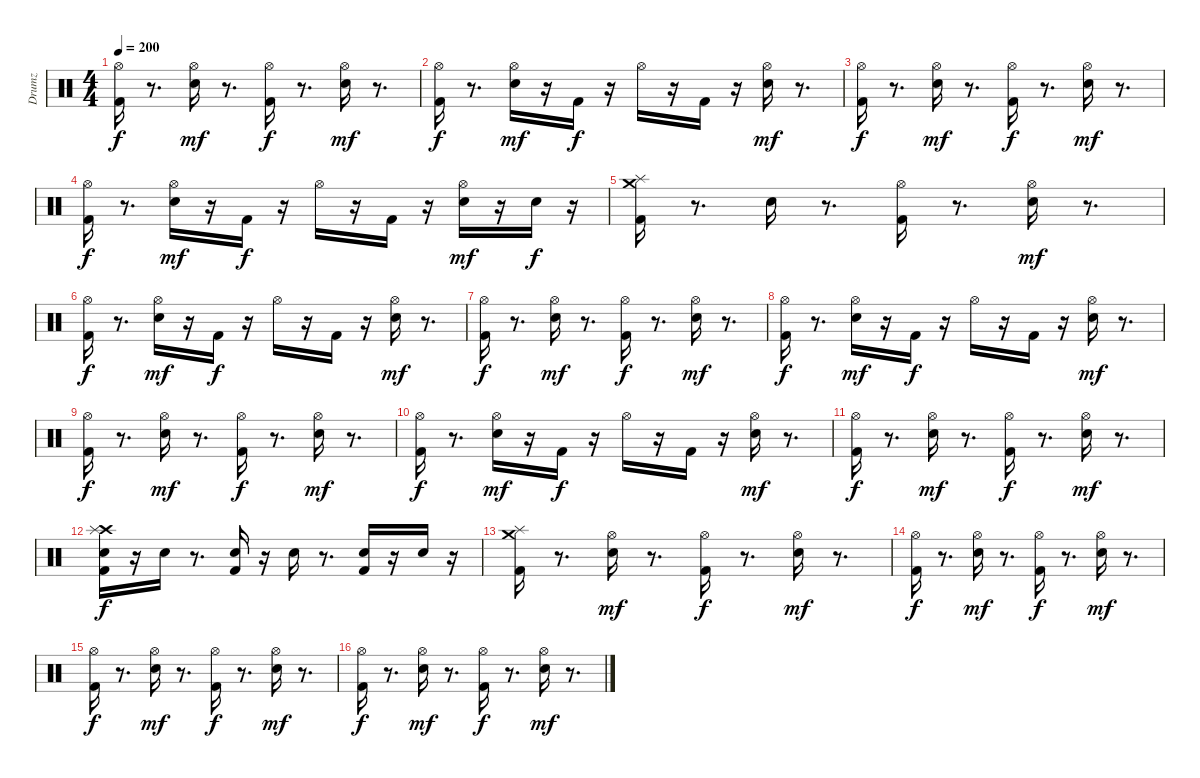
\track ("Drumz" "Drumz") {instrument percussion}
\staff {score}
\articulation defaults
\ts (4 4)
\tempo 200
\clef neutral
\ks c
("Kick (hit) 2" "Hi-Hat (open)").16{dy f} r.8{d} ("Snare (hit) 2" "Hi-Hat (open)").16{dy mf} r.8{d} ("Hi-Hat (open)" "Kick (hit) 2").16{dy f} r.8{d} ("Snare (hit) 2" "Hi-Hat (open)").16{dy mf} r.8{d} |
("Kick (hit) 2" "Hi-Hat (open)").16{dy f} r.8{d} ("Snare (hit) 2" "Hi-Hat (open)").16{dy mf} r.16 "Kick (hit) 2".16{dy f} r.16 "Hi-Hat (open)".16 r.16 "Kick (hit) 2".16 r.16 ("Snare (hit) 2" "Hi-Hat (open)").16{dy mf} r.8{d} |
("Kick (hit) 2" "Hi-Hat (open)").16{dy f} r.8{d} ("Snare (hit) 2" "Hi-Hat (open)").16{dy mf} r.8{d} ("Hi-Hat (open)" "Kick (hit) 2").16{dy f} r.8{d} ("Snare (hit) 2" "Hi-Hat (open)").16{dy mf} r.8{d} |
("Kick (hit) 2" "Hi-Hat (open)").16{dy f} r.8{d} ("Snare (hit) 2" "Hi-Hat (open)").16{dy mf} r.16 "Kick (hit) 2".16{dy f} r.16 "Hi-Hat (open)".16 r.16 "Kick (hit) 2".16 r.16 ("Snare (hit) 2" "Hi-Hat (open)").16{dy mf} r.16 "Snare (hit) 2".16{dy f} r.16 |
("Kick (hit) 2" "Splash (hit)" "Crash medium (hit)").16 r.8{d} "Snare (hit) 2".16 r.8{d} ("Hi-Hat (open)" "Kick (hit) 2").16 r.8{d} ("Snare (hit) 2" "Hi-Hat (open)").16{dy mf} r.8{d} |
("Kick (hit) 2" "Hi-Hat (open)").16{dy f} r.8{d} ("Snare (hit) 2" "Hi-Hat (open)").16{dy mf} r.16 "Kick (hit) 2".16{dy f} r.16 "Hi-Hat (open)".16 r.16 "Kick (hit) 2".16 r.16 ("Snare (hit) 2" "Hi-Hat (open)").16{dy mf} r.8{d} |
("Kick (hit) 2" "Hi-Hat (open)").16{dy f} r.8{d} ("Snare (hit) 2" "Hi-Hat (open)").16{dy mf} r.8{d} ("Hi-Hat (open)" "Kick (hit) 2").16{dy f} r.8{d} ("Snare (hit) 2" "Hi-Hat (open)").16{dy mf} r.8{d} |
("Kick (hit) 2" "Hi-Hat (open)").16{dy f} r.8{d} ("Snare (hit) 2" "Hi-Hat (open)").16{dy mf} r.16 "Kick (hit) 2".16{dy f} r.16 "Hi-Hat (open)".16 r.16 "Kick (hit) 2".16 r.16 ("Snare (hit) 2" "Hi-Hat (open)").16{dy mf} r.8{d} |
("Kick (hit) 2" "Hi-Hat (open)").16{dy f} r.8{d} ("Snare (hit) 2" "Hi-Hat (open)").16{dy mf} r.8{d} ("Hi-Hat (open)" "Kick (hit) 2").16{dy f} r.8{d} ("Snare (hit) 2" "Hi-Hat (open)").16{dy mf} r.8{d} |
("Kick (hit) 2" "Hi-Hat (open)").16{dy f} r.8{d} ("Snare (hit) 2" "Hi-Hat (open)").16{dy mf} r.16 "Kick (hit) 2".16{dy f} r.16 "Hi-Hat (open)".16 r.16 "Kick (hit) 2".16 r.16 ("Snare (hit) 2" "Hi-Hat (open)").16{dy mf} r.8{d} |
("Kick (hit) 2" "Hi-Hat (open)").16{dy f} r.8{d} ("Snare (hit) 2" "Hi-Hat (open)").16{dy mf} r.8{d} ("Hi-Hat (open)" "Kick (hit) 2").16{dy f} r.8{d} ("Snare (hit) 2" "Hi-Hat (open)").16{dy mf} r.8{d} |
("Snare (hit) 2" "Kick (hit) 2" "Crash high (hit)" "Splash (hit)").16{dy f} r.16 "Snare (hit) 2".16 r.8{d} ("Snare (hit) 2" "Kick (hit) 2").16 r.16 "Snare (hit) 2".16 r.8{d} ("Snare (hit) 2" "Kick (hit) 2").16 r.16 "Snare (hit) 2".16 r.16 |
("Kick (hit) 2" "Splash (hit)" "Crash medium (hit)").16 r.8{d} ("Snare (hit) 2" "Hi-Hat (open)").16{dy mf} r.8{d} ("Hi-Hat (open)" "Kick (hit) 2").16{dy f} r.8{d} ("Snare (hit) 2" "Hi-Hat (open)").16{dy mf} r.8{d} |
("Kick (hit) 2" "Hi-Hat (open)").16{dy f} r.8{d} ("Snare (hit) 2" "Hi-Hat (open)").16{dy mf} r.8{d} ("Hi-Hat (open)" "Kick (hit) 2").16{dy f} r.8{d} ("Snare (hit) 2" "Hi-Hat (open)").16{dy mf} r.8{d} |
("Kick (hit) 2" "Hi-Hat (open)").16{dy f} r.8{d} ("Snare (hit) 2" "Hi-Hat (open)").16{dy mf} r.8{d} ("Hi-Hat (open)" "Kick (hit) 2").16{dy f} r.8{d} ("Snare (hit) 2" "Hi-Hat (open)").16{dy mf} r.8{d} |
("Kick (hit) 2" "Hi-Hat (open)").16{dy f} r.8{d} ("Snare (hit) 2" "Hi-Hat (open)").16{dy mf} r.8{d} ("Hi-Hat (open)" "Kick (hit) 2").16{dy f} r.8{d} ("Snare (hit) 2" "Hi-Hat (open)").16{dy mf} r.8{d}
